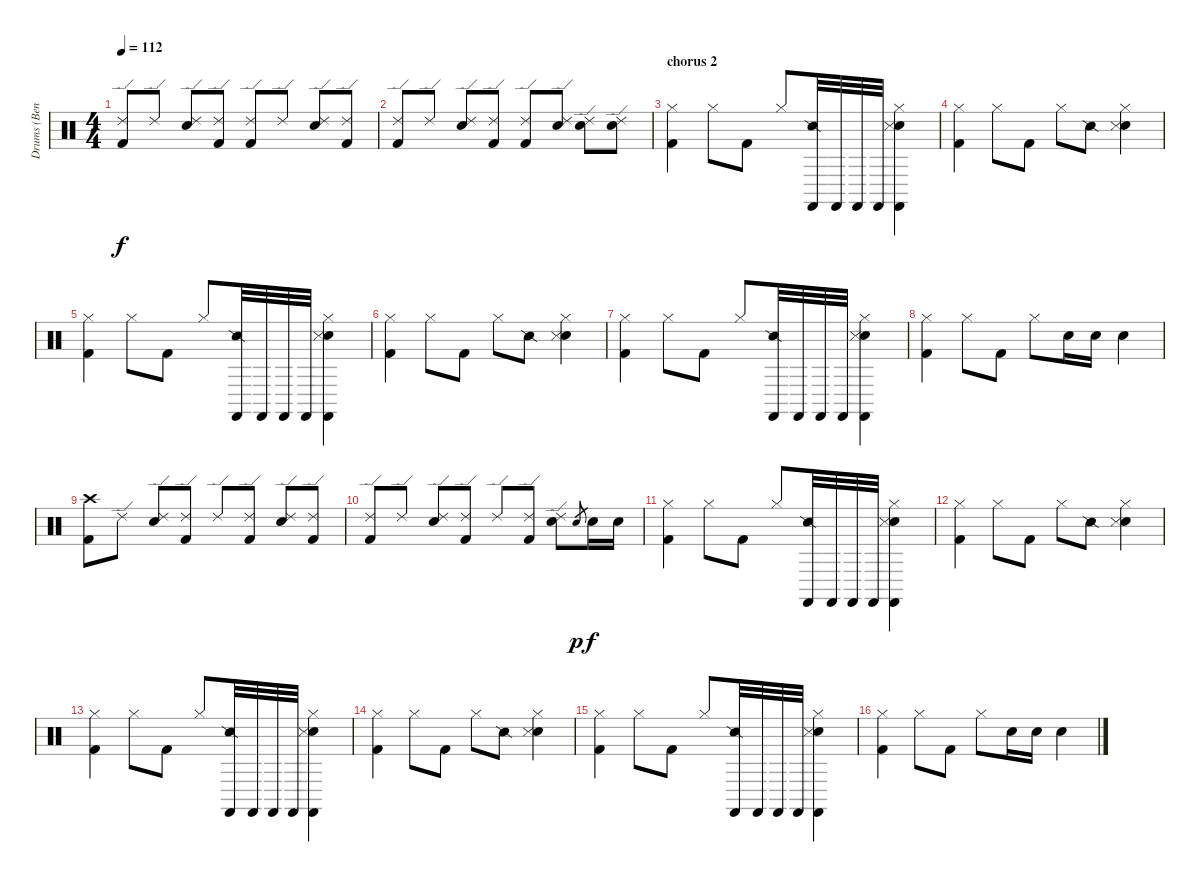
\track ("Drums (Bengerg)" "Drums (Ben") {instrument percussion}
\staff {score}
\articulation defaults
\ts (4 4)
\tempo 112
\clef neutral
\ks c
("Ride (edge) 2" "Kick (hit) 2").8{dy f} "Ride (edge) 2".8 ("Ride (edge) 2" "Electric Snare (hit)").8 ("Ride (edge) 2" "Kick (hit) 2").8 ("Ride (edge) 2" "Kick (hit) 2").8 "Ride (edge) 2".8 ("Ride (edge) 2" "Electric Snare (hit)").8 ("Ride (edge) 2" "Kick (hit) 2").8 |
("Ride (edge) 2" "Kick (hit) 2").8 "Ride (edge) 2".8 ("Ride (edge) 2" "Electric Snare (hit)").8 ("Ride (edge) 2" "Kick (hit) 2").8 ("Ride (edge) 2" "Kick (hit) 2").8 ("Ride (edge) 2" "Electric Snare (hit)").8 ("Ride (edge) 2" "Electric Snare (hit)").8 ("Ride (edge) 2" "Electric Snare (hit)").8 |
\section ("" "chorus 2")
("Hi-Hat (closed)" "Kick (hit) 2").4 "Hi-Hat (closed)".8 "Kick (hit) 2".8 "Hi-Hat (closed)".8 ("Castanets (hit)" "Snare (side stick) 2").32 "Castanets (hit)".32 "Castanets (hit)".32 "Castanets (hit)".32 ("Castanets (hit)" "Hi-Hat (closed)" "Electric Snare (hit)" "Metronome (hit)").4 |
("Hi-Hat (closed)" "Kick (hit) 2").4 "Hi-Hat (closed)".8 "Kick (hit) 2".8 "Hi-Hat (closed)".8 "Snare (side stick) 2".8 ("Hi-Hat (closed)" "Electric Snare (hit)" "Metronome (hit)").4 |
("Hi-Hat (closed)" "Kick (hit) 2").4 "Hi-Hat (closed)".8 "Kick (hit) 2".8 "Hi-Hat (closed)".8 ("Castanets (hit)" "Snare (side stick) 2").32 "Castanets (hit)".32 "Castanets (hit)".32 "Castanets (hit)".32 ("Castanets (hit)" "Hi-Hat (closed)" "Electric Snare (hit)" "Metronome (hit)").4 |
("Hi-Hat (closed)" "Kick (hit) 2").4 "Hi-Hat (closed)".8 "Kick (hit) 2".8 "Hi-Hat (closed)".8 "Snare (side stick) 2".8 ("Hi-Hat (closed)" "Electric Snare (hit)" "Metronome (hit)").4 |
("Hi-Hat (closed)" "Kick (hit) 2").4 "Hi-Hat (closed)".8 "Kick (hit) 2".8 "Hi-Hat (closed)".8 ("Castanets (hit)" "Snare (side stick) 2").32 "Castanets (hit)".32 "Castanets (hit)".32 "Castanets (hit)".32 ("Castanets (hit)" "Hi-Hat (closed)" "Electric Snare (hit)" "Metronome (hit)").4 |
("Hi-Hat (closed)" "Kick (hit) 2").4 "Hi-Hat (closed)".8 "Kick (hit) 2".8 "Hi-Hat (closed)".8 "Electric Snare (hit)".16 "Electric Snare (hit)".16 "Electric Snare (hit)".4 |
("Crash high (hit)" "Kick (hit) 2").8 "Ride (edge) 2".8 ("Ride (edge) 2" "Electric Snare (hit)").8 ("Ride (edge) 2" "Kick (hit) 2").8 "Ride (edge) 2".8 ("Ride (edge) 2" "Kick (hit) 2").8 ("Ride (edge) 2" "Electric Snare (hit)").8 ("Ride (edge) 2" "Kick (hit) 2").8 |
("Ride (edge) 2" "Kick (hit) 2").8 "Ride (edge) 2".8 ("Ride (edge) 2" "Electric Snare (hit)").8 ("Ride (edge) 2" "Kick (hit) 2").8 "Ride (edge) 2".8 ("Ride (edge) 2" "Kick (hit) 2").8 ("Ride (edge) 2" "Electric Snare (hit)").8 "Electric Snare (hit)".8{gr dy p} "Electric Snare (hit)".16{dy f} "Electric Snare (hit)".16 |
("Hi-Hat (closed)" "Kick (hit) 2").4 "Hi-Hat (closed)".8 "Kick (hit) 2".8 "Hi-Hat (closed)".8 ("Castanets (hit)" "Snare (side stick) 2").32 "Castanets (hit)".32 "Castanets (hit)".32 "Castanets (hit)".32 ("Castanets (hit)" "Hi-Hat (closed)" "Electric Snare (hit)" "Metronome (hit)").4 |
("Hi-Hat (closed)" "Kick (hit) 2").4 "Hi-Hat (closed)".8 "Kick (hit) 2".8 "Hi-Hat (closed)".8 "Snare (side stick) 2".8 ("Hi-Hat (closed)" "Electric Snare (hit)" "Metronome (hit)").4 |
("Hi-Hat (closed)" "Kick (hit) 2").4 "Hi-Hat (closed)".8 "Kick (hit) 2".8 "Hi-Hat (closed)".8 ("Castanets (hit)" "Snare (side stick) 2").32 "Castanets (hit)".32 "Castanets (hit)".32 "Castanets (hit)".32 ("Castanets (hit)" "Hi-Hat (closed)" "Electric Snare (hit)" "Metronome (hit)").4 |
("Hi-Hat (closed)" "Kick (hit) 2").4 "Hi-Hat (closed)".8 "Kick (hit) 2".8 "Hi-Hat (closed)".8 "Snare (side stick) 2".8 ("Hi-Hat (closed)" "Electric Snare (hit)" "Metronome (hit)").4 |
("Hi-Hat (closed)" "Kick (hit) 2").4 "Hi-Hat (closed)".8 "Kick (hit) 2".8 "Hi-Hat (closed)".8 ("Castanets (hit)" "Snare (side stick) 2").32 "Castanets (hit)".32 "Castanets (hit)".32 "Castanets (hit)".32 ("Castanets (hit)" "Hi-Hat (closed)" "Electric Snare (hit)" "Metronome (hit)").4 |
("Hi-Hat (closed)" "Kick (hit) 2").4 "Hi-Hat (closed)".8 "Kick (hit) 2".8 "Hi-Hat (closed)".8 "Electric Snare (hit)".16 "Electric Snare (hit)".16 "Electric Snare (hit)".4
